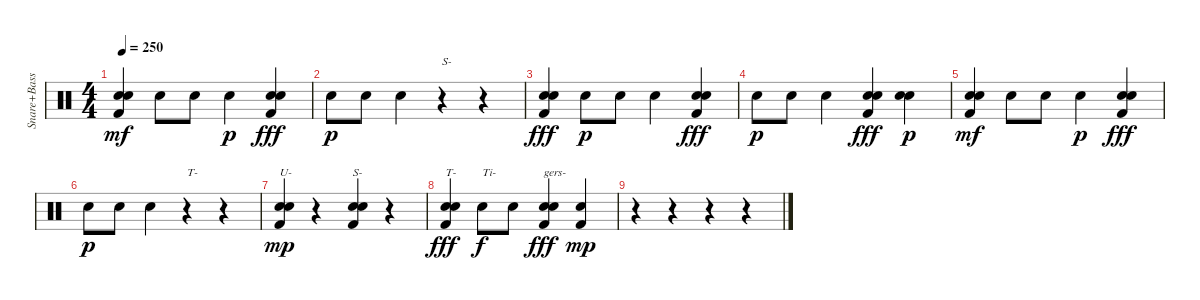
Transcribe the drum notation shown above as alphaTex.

\track ("Snare+Bass" "Snare+Bass") {instrument percussion}
\staff {score}
\articulation defaults
\ts (4 4)
\tempo 250
\clef neutral
\ks c
("Snare (hit) 2" "Snare (hit) 2" "Kick (hit) 2").4{dy mf} "Snare (hit) 2".8 "Snare (hit) 2".8 "Snare (hit) 2".4{dy p} ("Snare (hit) 2" "Snare (hit) 2" "Kick (hit) 2").4{dy fff} |
"Snare (hit) 2".8{dy p} "Snare (hit) 2".8 "Snare (hit) 2".4 r.4{txt "S-"} r.4 |
("Snare (hit) 2" "Snare (hit) 2" "Kick (hit) 2").4{dy fff} "Snare (hit) 2".8{dy p} "Snare (hit) 2".8 "Snare (hit) 2".4 ("Snare (hit) 2" "Snare (hit) 2" "Kick (hit) 2").4{dy fff} |
"Snare (hit) 2".8{dy p} "Snare (hit) 2".8 "Snare (hit) 2".4 ("Snare (hit) 2" "Snare (hit) 2" "Kick (hit) 2").4{dy fff} ("Snare (hit) 2" "Snare (hit) 2").4{dy p} |
("Snare (hit) 2" "Snare (hit) 2" "Kick (hit) 2").4{dy mf} "Snare (hit) 2".8 "Snare (hit) 2".8 "Snare (hit) 2".4{dy p} ("Snare (hit) 2" "Snare (hit) 2" "Kick (hit) 2").4{dy fff} |
"Snare (hit) 2".8{dy p} "Snare (hit) 2".8 "Snare (hit) 2".4 r.4{txt "T-"} r.4 |
("Snare (hit) 2" "Snare (hit) 2" "Kick (hit) 2").4{txt "U-" dy mp} r.4 ("Snare (hit) 2" "Snare (hit) 2" "Kick (hit) 2").4{txt "S-"} r.4 |
("Snare (hit) 2" "Snare (hit) 2" "Kick (hit) 2").4{txt "T-" dy fff} "Snare (hit) 2".8{txt "Ti-" dy f} "Snare (hit) 2".8 ("Snare (hit) 2" "Snare (hit) 2" "Kick (hit) 2").4{txt "gers-" dy fff} ("Snare (hit) 2" "Kick (hit) 2").4{dy mp} |
r.4 r.4 r.4 r.4
